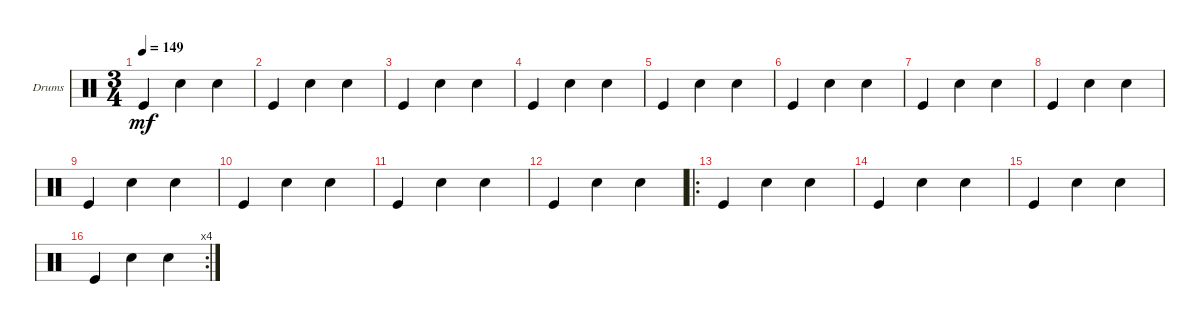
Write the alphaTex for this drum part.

\defaultSystemsLayout 4
\bracketExtendMode groupsimilarinstruments
\firstSystemTrackNameOrientation horizontal
\otherSystemsTrackNameOrientation horizontal
\chordDiagramsInScore
\track ("Drumkit" "Drums") {instrument percussion}
\staff {score}
\articulation defaults
\ts (3 4)
\tempo 149
\clef neutral
\ks c "Kick (hit)".4{dy mf} "Snare (hit) 2".4 "Snare (hit) 2".4
|
"Kick (hit)".4 "Snare (hit) 2".4 "Snare (hit) 2".4 |
"Kick (hit)".4 "Snare (hit) 2".4 "Snare (hit) 2".4 |
"Kick (hit)".4 "Snare (hit) 2".4 "Snare (hit) 2".4 |
"Kick (hit)".4 "Snare (hit) 2".4 "Snare (hit) 2".4 |
"Kick (hit)".4 "Snare (hit) 2".4 "Snare (hit) 2".4 |
"Kick (hit)".4 "Snare (hit) 2".4 "Snare (hit) 2".4 |
"Kick (hit)".4 "Snare (hit) 2".4 "Snare (hit) 2".4 |
"Kick (hit)".4 "Snare (hit) 2".4 "Snare (hit) 2".4 |
"Kick (hit)".4 "Snare (hit) 2".4 "Snare (hit) 2".4 |
"Kick (hit)".4 "Snare (hit) 2".4 "Snare (hit) 2".4 |
"Kick (hit)".4 "Snare (hit) 2".4 "Snare (hit) 2".4 |
\ro "Kick (hit)".4 "Snare (hit) 2".4 "Snare (hit) 2".4
|
"Kick (hit)".4 "Snare (hit) 2".4 "Snare (hit) 2".4 |
"Kick (hit)".4 "Snare (hit) 2".4 "Snare (hit) 2".4 |
\rc 4 "Kick (hit)".4 "Snare (hit) 2".4 "Snare (hit) 2".4
